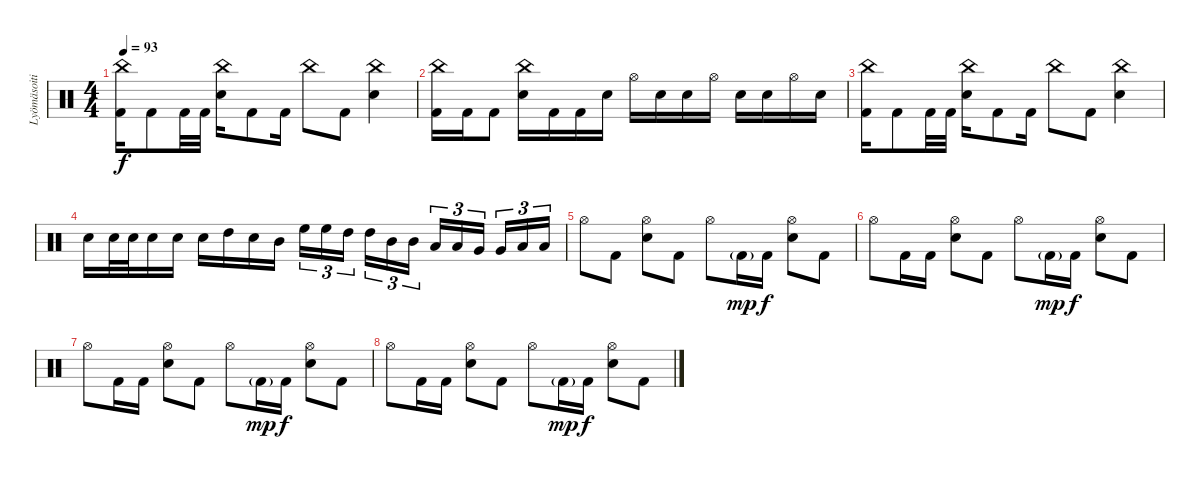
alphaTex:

\track ("Lyömäsoitin" "Lyömäsoiti") {instrument percussion}
\staff {score}
\articulation defaults
\ts (4 4)
\tempo 93
\clef neutral
\ks c
("China (hit)" "Kick (hit) 2").16{dy f} "Kick (hit) 2".8 "Kick (hit) 2".32 "Kick (hit) 2".32 ("China (hit)" "Electric Snare (hit)").16 "Kick (hit) 2".8 "Kick (hit) 2".16 "China (hit)".8 "Kick (hit) 2".8 ("China (hit)" "Electric Snare (hit)").4 |
("China (hit)" "Kick (hit) 2").16 "Kick (hit) 2".16 "Kick (hit) 2".8 ("China (hit)" "Electric Snare (hit)").16 "Kick (hit) 2".16 "Kick (hit) 2".16 "Electric Snare (hit)".16 "Hi-Hat (open)".16 "Electric Snare (hit)".16 "Electric Snare (hit)".16 "Hi-Hat (open)".16 "Electric Snare (hit)".16 "Electric Snare (hit)".16 "Hi-Hat (open)".16 "Electric Snare (hit)".16 |
("China (hit)" "Kick (hit) 2").16 "Kick (hit) 2".8 "Kick (hit) 2".32 "Kick (hit) 2".32 ("China (hit)" "Electric Snare (hit)").16 "Kick (hit) 2".8 "Kick (hit) 2".16 "China (hit)".8 "Kick (hit) 2".8 ("China (hit)" "Electric Snare (hit)").4 |
"Electric Snare (hit)".16 "Electric Snare (hit)".32 "Electric Snare (hit)".32 "Electric Snare (hit)".16 "Electric Snare (hit)".16 "Electric Snare (hit)".16 "High Tom (hit)".16 "Electric Snare (hit)".16 "Mid Tom (hit)".16 "High Floor Tom (hit)".16{tu (3 2)} "High Floor Tom (hit)".16{tu (3 2)} "High Tom (hit)".16{tu (3 2)} "High Tom (hit)".16{tu (3 2)} "Mid Tom (hit)".16{tu (3 2)} "Mid Tom (hit)".16{tu (3 2)} "Low Tom (hit)".16{tu (3 2)} "Low Tom (hit)".16{tu (3 2)} "Very Low Tom (hit)".16{tu (3 2)} "Very Low Tom (hit)".16{tu (3 2)} "Low Floor Tom (hit)".16{tu (3 2)} "Low Floor Tom (hit)".16{tu (3 2)} |
"Hi-Hat (open)".8 "Kick (hit) 2".8 ("Hi-Hat (open)" "Electric Snare (hit)").8 "Kick (hit) 2".8 "Hi-Hat (open)".8 "Kick (hit) 2"{g}.16{dy mp} "Kick (hit) 2".16{dy f} ("Hi-Hat (open)" "Electric Snare (hit)").8 "Kick (hit) 2".8 |
"Hi-Hat (open)".8 "Kick (hit) 2".16 "Kick (hit) 2".16 ("Hi-Hat (open)" "Electric Snare (hit)").8 "Kick (hit) 2".8 "Hi-Hat (open)".8 "Kick (hit) 2"{g}.16{dy mp} "Kick (hit) 2".16{dy f} ("Hi-Hat (open)" "Electric Snare (hit)").8 "Kick (hit) 2".8 |
"Hi-Hat (open)".8 "Kick (hit) 2".16 "Kick (hit) 2".16 ("Hi-Hat (open)" "Electric Snare (hit)").8 "Kick (hit) 2".8 "Hi-Hat (open)".8 "Kick (hit) 2"{g}.16{dy mp} "Kick (hit) 2".16{dy f} ("Hi-Hat (open)" "Electric Snare (hit)").8 "Kick (hit) 2".8 |
"Hi-Hat (open)".8 "Kick (hit) 2".16 "Kick (hit) 2".16 ("Hi-Hat (open)" "Electric Snare (hit)").8 "Kick (hit) 2".8 "Hi-Hat (open)".8 "Kick (hit) 2"{g}.16{dy mp} "Kick (hit) 2".16{dy f} ("Hi-Hat (open)" "Electric Snare (hit)").8 "Kick (hit) 2".8
